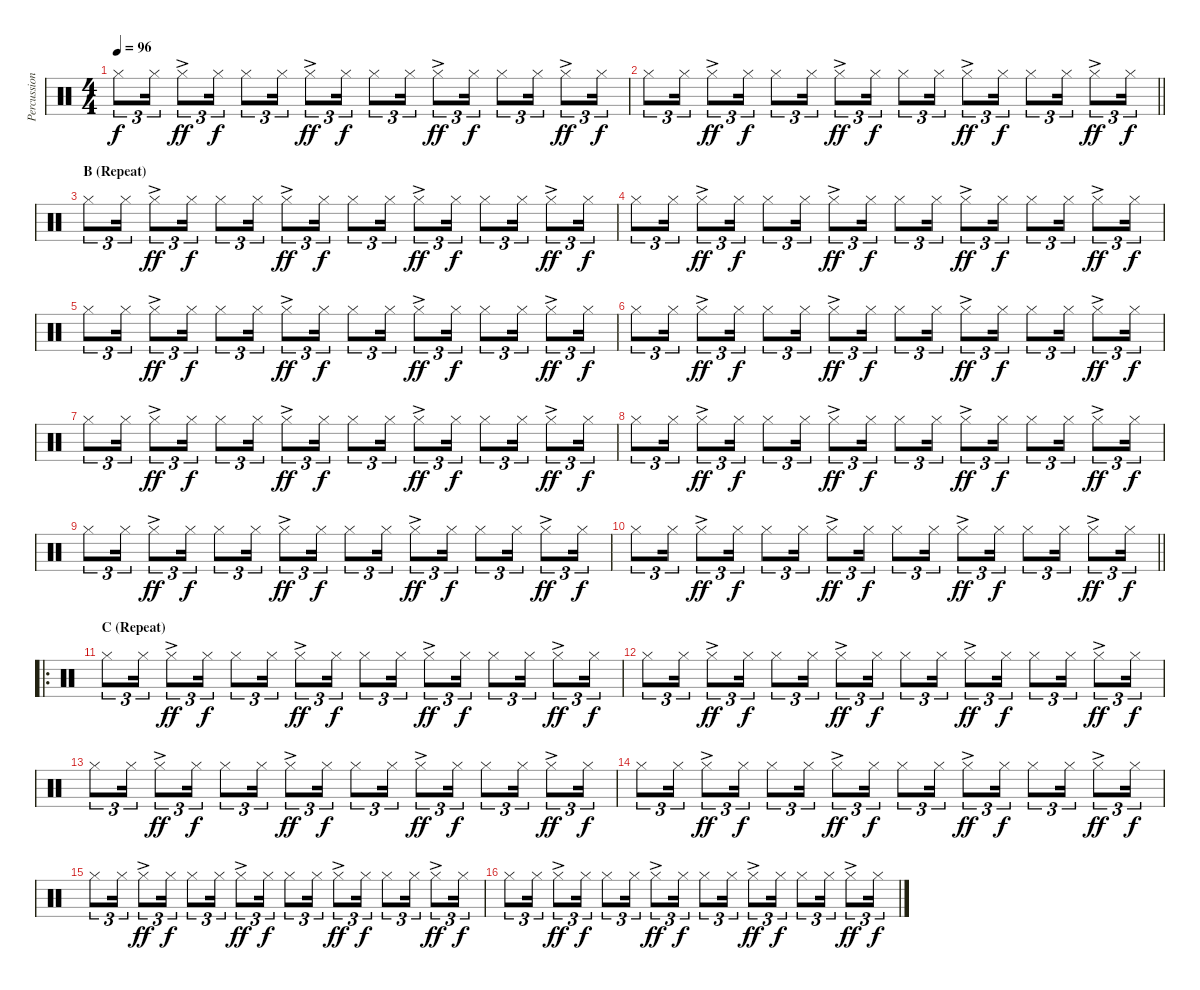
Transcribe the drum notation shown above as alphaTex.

\track ("Percussion" "Percussion") {instrument percussion}
\staff {score}
\articulation defaults
\ts (4 4)
\tempo 96
\clef neutral
\ks c "Hi-Hat (closed)".8{tu (3 2) dy f} "Hi-Hat (closed)".16{tu (3 2)} "Hi-Hat (closed)"{ac}.8{tu (3 2) dy ff} "Hi-Hat (closed)".16{tu (3 2) dy f} "Hi-Hat (closed)".8{tu (3 2)} "Hi-Hat (closed)".16{tu (3 2)} "Hi-Hat (closed)"{ac}.8{tu (3 2) dy ff} "Hi-Hat (closed)".16{tu (3 2) dy f} "Hi-Hat (closed)".8{tu (3 2)} "Hi-Hat (closed)".16{tu (3 2)} "Hi-Hat (closed)"{ac}.8{tu (3 2) dy ff} "Hi-Hat (closed)".16{tu (3 2) dy f} "Hi-Hat (closed)".8{tu (3 2)} "Hi-Hat (closed)".16{tu (3 2)} "Hi-Hat (closed)"{ac}.8{tu (3 2) dy ff} "Hi-Hat (closed)".16{tu (3 2) dy f}
|
\barLineRight lightlight "Hi-Hat (closed)".8{tu (3 2)} "Hi-Hat (closed)".16{tu (3 2)} "Hi-Hat (closed)"{ac}.8{tu (3 2) dy ff} "Hi-Hat (closed)".16{tu (3 2) dy f} "Hi-Hat (closed)".8{tu (3 2)} "Hi-Hat (closed)".16{tu (3 2)} "Hi-Hat (closed)"{ac}.8{tu (3 2) dy ff} "Hi-Hat (closed)".16{tu (3 2) dy f} "Hi-Hat (closed)".8{tu (3 2)} "Hi-Hat (closed)".16{tu (3 2)} "Hi-Hat (closed)"{ac}.8{tu (3 2) dy ff} "Hi-Hat (closed)".16{tu (3 2) dy f} "Hi-Hat (closed)".8{tu (3 2)} "Hi-Hat (closed)".16{tu (3 2)} "Hi-Hat (closed)"{ac}.8{tu (3 2) dy ff} "Hi-Hat (closed)".16{tu (3 2) dy f}
|
\section ("" "B (Repeat)")
"Hi-Hat (closed)".8{tu (3 2)} "Hi-Hat (closed)".16{tu (3 2)} "Hi-Hat (closed)"{ac}.8{tu (3 2) dy ff} "Hi-Hat (closed)".16{tu (3 2) dy f} "Hi-Hat (closed)".8{tu (3 2)} "Hi-Hat (closed)".16{tu (3 2)} "Hi-Hat (closed)"{ac}.8{tu (3 2) dy ff} "Hi-Hat (closed)".16{tu (3 2) dy f} "Hi-Hat (closed)".8{tu (3 2)} "Hi-Hat (closed)".16{tu (3 2)} "Hi-Hat (closed)"{ac}.8{tu (3 2) dy ff} "Hi-Hat (closed)".16{tu (3 2) dy f} "Hi-Hat (closed)".8{tu (3 2)} "Hi-Hat (closed)".16{tu (3 2)} "Hi-Hat (closed)"{ac}.8{tu (3 2) dy ff} "Hi-Hat (closed)".16{tu (3 2) dy f} |
"Hi-Hat (closed)".8{tu (3 2)} "Hi-Hat (closed)".16{tu (3 2)} "Hi-Hat (closed)"{ac}.8{tu (3 2) dy ff} "Hi-Hat (closed)".16{tu (3 2) dy f} "Hi-Hat (closed)".8{tu (3 2)} "Hi-Hat (closed)".16{tu (3 2)} "Hi-Hat (closed)"{ac}.8{tu (3 2) dy ff} "Hi-Hat (closed)".16{tu (3 2) dy f} "Hi-Hat (closed)".8{tu (3 2)} "Hi-Hat (closed)".16{tu (3 2)} "Hi-Hat (closed)"{ac}.8{tu (3 2) dy ff} "Hi-Hat (closed)".16{tu (3 2) dy f} "Hi-Hat (closed)".8{tu (3 2)} "Hi-Hat (closed)".16{tu (3 2)} "Hi-Hat (closed)"{ac}.8{tu (3 2) dy ff} "Hi-Hat (closed)".16{tu (3 2) dy f} |
"Hi-Hat (closed)".8{tu (3 2)} "Hi-Hat (closed)".16{tu (3 2)} "Hi-Hat (closed)"{ac}.8{tu (3 2) dy ff} "Hi-Hat (closed)".16{tu (3 2) dy f} "Hi-Hat (closed)".8{tu (3 2)} "Hi-Hat (closed)".16{tu (3 2)} "Hi-Hat (closed)"{ac}.8{tu (3 2) dy ff} "Hi-Hat (closed)".16{tu (3 2) dy f} "Hi-Hat (closed)".8{tu (3 2)} "Hi-Hat (closed)".16{tu (3 2)} "Hi-Hat (closed)"{ac}.8{tu (3 2) dy ff} "Hi-Hat (closed)".16{tu (3 2) dy f} "Hi-Hat (closed)".8{tu (3 2)} "Hi-Hat (closed)".16{tu (3 2)} "Hi-Hat (closed)"{ac}.8{tu (3 2) dy ff} "Hi-Hat (closed)".16{tu (3 2) dy f} |
"Hi-Hat (closed)".8{tu (3 2)} "Hi-Hat (closed)".16{tu (3 2)} "Hi-Hat (closed)"{ac}.8{tu (3 2) dy ff} "Hi-Hat (closed)".16{tu (3 2) dy f} "Hi-Hat (closed)".8{tu (3 2)} "Hi-Hat (closed)".16{tu (3 2)} "Hi-Hat (closed)"{ac}.8{tu (3 2) dy ff} "Hi-Hat (closed)".16{tu (3 2) dy f} "Hi-Hat (closed)".8{tu (3 2)} "Hi-Hat (closed)".16{tu (3 2)} "Hi-Hat (closed)"{ac}.8{tu (3 2) dy ff} "Hi-Hat (closed)".16{tu (3 2) dy f} "Hi-Hat (closed)".8{tu (3 2)} "Hi-Hat (closed)".16{tu (3 2)} "Hi-Hat (closed)"{ac}.8{tu (3 2) dy ff} "Hi-Hat (closed)".16{tu (3 2) dy f} |
"Hi-Hat (closed)".8{tu (3 2)} "Hi-Hat (closed)".16{tu (3 2)} "Hi-Hat (closed)"{ac}.8{tu (3 2) dy ff} "Hi-Hat (closed)".16{tu (3 2) dy f} "Hi-Hat (closed)".8{tu (3 2)} "Hi-Hat (closed)".16{tu (3 2)} "Hi-Hat (closed)"{ac}.8{tu (3 2) dy ff} "Hi-Hat (closed)".16{tu (3 2) dy f} "Hi-Hat (closed)".8{tu (3 2)} "Hi-Hat (closed)".16{tu (3 2)} "Hi-Hat (closed)"{ac}.8{tu (3 2) dy ff} "Hi-Hat (closed)".16{tu (3 2) dy f} "Hi-Hat (closed)".8{tu (3 2)} "Hi-Hat (closed)".16{tu (3 2)} "Hi-Hat (closed)"{ac}.8{tu (3 2) dy ff} "Hi-Hat (closed)".16{tu (3 2) dy f} |
"Hi-Hat (closed)".8{tu (3 2)} "Hi-Hat (closed)".16{tu (3 2)} "Hi-Hat (closed)"{ac}.8{tu (3 2) dy ff} "Hi-Hat (closed)".16{tu (3 2) dy f} "Hi-Hat (closed)".8{tu (3 2)} "Hi-Hat (closed)".16{tu (3 2)} "Hi-Hat (closed)"{ac}.8{tu (3 2) dy ff} "Hi-Hat (closed)".16{tu (3 2) dy f} "Hi-Hat (closed)".8{tu (3 2)} "Hi-Hat (closed)".16{tu (3 2)} "Hi-Hat (closed)"{ac}.8{tu (3 2) dy ff} "Hi-Hat (closed)".16{tu (3 2) dy f} "Hi-Hat (closed)".8{tu (3 2)} "Hi-Hat (closed)".16{tu (3 2)} "Hi-Hat (closed)"{ac}.8{tu (3 2) dy ff} "Hi-Hat (closed)".16{tu (3 2) dy f} |
"Hi-Hat (closed)".8{tu (3 2)} "Hi-Hat (closed)".16{tu (3 2)} "Hi-Hat (closed)"{ac}.8{tu (3 2) dy ff} "Hi-Hat (closed)".16{tu (3 2) dy f} "Hi-Hat (closed)".8{tu (3 2)} "Hi-Hat (closed)".16{tu (3 2)} "Hi-Hat (closed)"{ac}.8{tu (3 2) dy ff} "Hi-Hat (closed)".16{tu (3 2) dy f} "Hi-Hat (closed)".8{tu (3 2)} "Hi-Hat (closed)".16{tu (3 2)} "Hi-Hat (closed)"{ac}.8{tu (3 2) dy ff} "Hi-Hat (closed)".16{tu (3 2) dy f} "Hi-Hat (closed)".8{tu (3 2)} "Hi-Hat (closed)".16{tu (3 2)} "Hi-Hat (closed)"{ac}.8{tu (3 2) dy ff} "Hi-Hat (closed)".16{tu (3 2) dy f} |
\barLineRight lightlight "Hi-Hat (closed)".8{tu (3 2)} "Hi-Hat (closed)".16{tu (3 2)} "Hi-Hat (closed)"{ac}.8{tu (3 2) dy ff} "Hi-Hat (closed)".16{tu (3 2) dy f} "Hi-Hat (closed)".8{tu (3 2)} "Hi-Hat (closed)".16{tu (3 2)} "Hi-Hat (closed)"{ac}.8{tu (3 2) dy ff} "Hi-Hat (closed)".16{tu (3 2) dy f} "Hi-Hat (closed)".8{tu (3 2)} "Hi-Hat (closed)".16{tu (3 2)} "Hi-Hat (closed)"{ac}.8{tu (3 2) dy ff} "Hi-Hat (closed)".16{tu (3 2) dy f} "Hi-Hat (closed)".8{tu (3 2)} "Hi-Hat (closed)".16{tu (3 2)} "Hi-Hat (closed)"{ac}.8{tu (3 2) dy ff} "Hi-Hat (closed)".16{tu (3 2) dy f}
|
\ro
\section ("" "C (Repeat)")
"Hi-Hat (closed)".8{tu (3 2)} "Hi-Hat (closed)".16{tu (3 2)} "Hi-Hat (closed)"{ac}.8{tu (3 2) dy ff} "Hi-Hat (closed)".16{tu (3 2) dy f} "Hi-Hat (closed)".8{tu (3 2)} "Hi-Hat (closed)".16{tu (3 2)} "Hi-Hat (closed)"{ac}.8{tu (3 2) dy ff} "Hi-Hat (closed)".16{tu (3 2) dy f} "Hi-Hat (closed)".8{tu (3 2)} "Hi-Hat (closed)".16{tu (3 2)} "Hi-Hat (closed)"{ac}.8{tu (3 2) dy ff} "Hi-Hat (closed)".16{tu (3 2) dy f} "Hi-Hat (closed)".8{tu (3 2)} "Hi-Hat (closed)".16{tu (3 2)} "Hi-Hat (closed)"{ac}.8{tu (3 2) dy ff} "Hi-Hat (closed)".16{tu (3 2) dy f} |
"Hi-Hat (closed)".8{tu (3 2)} "Hi-Hat (closed)".16{tu (3 2)} "Hi-Hat (closed)"{ac}.8{tu (3 2) dy ff} "Hi-Hat (closed)".16{tu (3 2) dy f} "Hi-Hat (closed)".8{tu (3 2)} "Hi-Hat (closed)".16{tu (3 2)} "Hi-Hat (closed)"{ac}.8{tu (3 2) dy ff} "Hi-Hat (closed)".16{tu (3 2) dy f} "Hi-Hat (closed)".8{tu (3 2)} "Hi-Hat (closed)".16{tu (3 2)} "Hi-Hat (closed)"{ac}.8{tu (3 2) dy ff} "Hi-Hat (closed)".16{tu (3 2) dy f} "Hi-Hat (closed)".8{tu (3 2)} "Hi-Hat (closed)".16{tu (3 2)} "Hi-Hat (closed)"{ac}.8{tu (3 2) dy ff} "Hi-Hat (closed)".16{tu (3 2) dy f} |
"Hi-Hat (closed)".8{tu (3 2)} "Hi-Hat (closed)".16{tu (3 2)} "Hi-Hat (closed)"{ac}.8{tu (3 2) dy ff} "Hi-Hat (closed)".16{tu (3 2) dy f} "Hi-Hat (closed)".8{tu (3 2)} "Hi-Hat (closed)".16{tu (3 2)} "Hi-Hat (closed)"{ac}.8{tu (3 2) dy ff} "Hi-Hat (closed)".16{tu (3 2) dy f} "Hi-Hat (closed)".8{tu (3 2)} "Hi-Hat (closed)".16{tu (3 2)} "Hi-Hat (closed)"{ac}.8{tu (3 2) dy ff} "Hi-Hat (closed)".16{tu (3 2) dy f} "Hi-Hat (closed)".8{tu (3 2)} "Hi-Hat (closed)".16{tu (3 2)} "Hi-Hat (closed)"{ac}.8{tu (3 2) dy ff} "Hi-Hat (closed)".16{tu (3 2) dy f} |
"Hi-Hat (closed)".8{tu (3 2)} "Hi-Hat (closed)".16{tu (3 2)} "Hi-Hat (closed)"{ac}.8{tu (3 2) dy ff} "Hi-Hat (closed)".16{tu (3 2) dy f} "Hi-Hat (closed)".8{tu (3 2)} "Hi-Hat (closed)".16{tu (3 2)} "Hi-Hat (closed)"{ac}.8{tu (3 2) dy ff} "Hi-Hat (closed)".16{tu (3 2) dy f} "Hi-Hat (closed)".8{tu (3 2)} "Hi-Hat (closed)".16{tu (3 2)} "Hi-Hat (closed)"{ac}.8{tu (3 2) dy ff} "Hi-Hat (closed)".16{tu (3 2) dy f} "Hi-Hat (closed)".8{tu (3 2)} "Hi-Hat (closed)".16{tu (3 2)} "Hi-Hat (closed)"{ac}.8{tu (3 2) dy ff} "Hi-Hat (closed)".16{tu (3 2) dy f} |
"Hi-Hat (closed)".8{tu (3 2)} "Hi-Hat (closed)".16{tu (3 2)} "Hi-Hat (closed)"{ac}.8{tu (3 2) dy ff} "Hi-Hat (closed)".16{tu (3 2) dy f} "Hi-Hat (closed)".8{tu (3 2)} "Hi-Hat (closed)".16{tu (3 2)} "Hi-Hat (closed)"{ac}.8{tu (3 2) dy ff} "Hi-Hat (closed)".16{tu (3 2) dy f} "Hi-Hat (closed)".8{tu (3 2)} "Hi-Hat (closed)".16{tu (3 2)} "Hi-Hat (closed)"{ac}.8{tu (3 2) dy ff} "Hi-Hat (closed)".16{tu (3 2) dy f} "Hi-Hat (closed)".8{tu (3 2)} "Hi-Hat (closed)".16{tu (3 2)} "Hi-Hat (closed)"{ac}.8{tu (3 2) dy ff} "Hi-Hat (closed)".16{tu (3 2) dy f} |
"Hi-Hat (closed)".8{tu (3 2)} "Hi-Hat (closed)".16{tu (3 2)} "Hi-Hat (closed)"{ac}.8{tu (3 2) dy ff} "Hi-Hat (closed)".16{tu (3 2) dy f} "Hi-Hat (closed)".8{tu (3 2)} "Hi-Hat (closed)".16{tu (3 2)} "Hi-Hat (closed)"{ac}.8{tu (3 2) dy ff} "Hi-Hat (closed)".16{tu (3 2) dy f} "Hi-Hat (closed)".8{tu (3 2)} "Hi-Hat (closed)".16{tu (3 2)} "Hi-Hat (closed)"{ac}.8{tu (3 2) dy ff} "Hi-Hat (closed)".16{tu (3 2) dy f} "Hi-Hat (closed)".8{tu (3 2)} "Hi-Hat (closed)".16{tu (3 2)} "Hi-Hat (closed)"{ac}.8{tu (3 2) dy ff} "Hi-Hat (closed)".16{tu (3 2) dy f}
